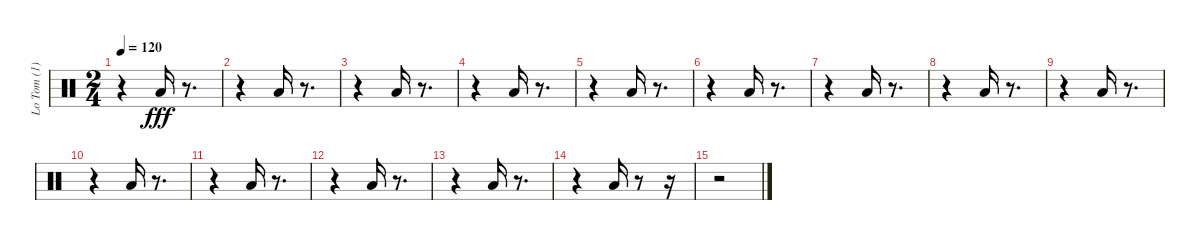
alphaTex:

\track ("Lo Tom (1) (1) (1) (1)" "Lo Tom (1)") {instrument percussion}
\staff {score}
\articulation defaults
\ts (2 4)
\tempo 120
\clef neutral
\ks c
r.4{dy fff} "Low Tom (hit)".16 r.8{d} |
r.4 "Low Tom (hit)".16 r.8{d} |
r.4 "Low Tom (hit)".16 r.8{d} |
r.4 "Low Tom (hit)".16 r.8{d} |
r.4 "Low Tom (hit)".16 r.8{d} |
r.4 "Low Tom (hit)".16 r.8{d} |
r.4 "Low Tom (hit)".16 r.8{d} |
r.4 "Low Tom (hit)".16 r.8{d} |
r.4 "Low Tom (hit)".16 r.8{d} |
r.4 "Low Tom (hit)".16 r.8{d} |
r.4 "Low Tom (hit)".16 r.8{d} |
r.4 "Low Tom (hit)".16 r.8{d} |
r.4 "Low Tom (hit)".16 r.8{d} |
r.4 "Low Tom (hit)".16 r.8 r.16 |
r.2
